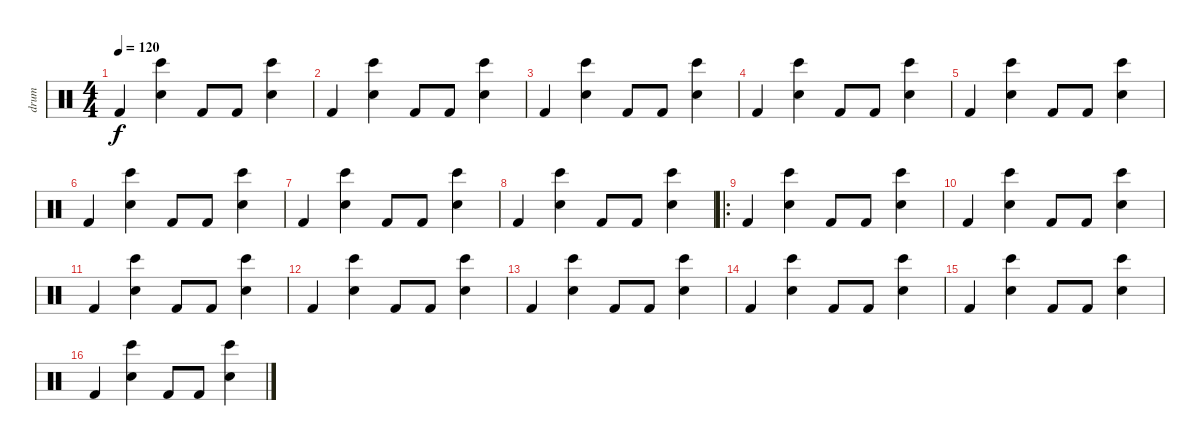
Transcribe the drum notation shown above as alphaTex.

\track ("drum " "drum ") {instrument percussion}
\staff {score}
\articulation defaults
\ts (4 4)
\tempo 120
\tempo 180
\tempo 120
\clef neutral
\ks c "Kick (hit) 2".4{dy f}
("Electric Snare (hit)" "Bongo High (hit)").4 "Kick (hit) 2".8 "Kick (hit) 2".8 ("Electric Snare (hit)" "Bongo High (hit)").4 |
"Kick (hit) 2".4 ("Electric Snare (hit)" "Bongo High (hit)").4 "Kick (hit) 2".8 "Kick (hit) 2".8 ("Electric Snare (hit)" "Bongo High (hit)").4 |
"Kick (hit) 2".4 ("Electric Snare (hit)" "Bongo High (hit)").4 "Kick (hit) 2".8 "Kick (hit) 2".8 ("Electric Snare (hit)" "Bongo High (hit)").4 |
"Kick (hit) 2".4 ("Electric Snare (hit)" "Bongo High (hit)").4 "Kick (hit) 2".8 "Kick (hit) 2".8 ("Electric Snare (hit)" "Bongo High (hit)").4 |
"Kick (hit) 2".4 ("Electric Snare (hit)" "Bongo High (hit)").4 "Kick (hit) 2".8 "Kick (hit) 2".8 ("Electric Snare (hit)" "Bongo High (hit)").4 |
"Kick (hit) 2".4 ("Electric Snare (hit)" "Bongo High (hit)").4 "Kick (hit) 2".8 "Kick (hit) 2".8 ("Electric Snare (hit)" "Bongo High (hit)").4 |
"Kick (hit) 2".4 ("Electric Snare (hit)" "Bongo High (hit)").4 "Kick (hit) 2".8 "Kick (hit) 2".8 ("Electric Snare (hit)" "Bongo High (hit)").4 |
"Kick (hit) 2".4 ("Electric Snare (hit)" "Bongo High (hit)").4 "Kick (hit) 2".8 "Kick (hit) 2".8 ("Electric Snare (hit)" "Bongo High (hit)").4 |
\ro "Kick (hit) 2".4
("Electric Snare (hit)" "Bongo High (hit)").4 "Kick (hit) 2".8 "Kick (hit) 2".8 ("Electric Snare (hit)" "Bongo High (hit)").4 |
"Kick (hit) 2".4 ("Electric Snare (hit)" "Bongo High (hit)").4 "Kick (hit) 2".8 "Kick (hit) 2".8 ("Electric Snare (hit)" "Bongo High (hit)").4 |
"Kick (hit) 2".4 ("Electric Snare (hit)" "Bongo High (hit)").4 "Kick (hit) 2".8 "Kick (hit) 2".8 ("Electric Snare (hit)" "Bongo High (hit)").4 |
"Kick (hit) 2".4 ("Electric Snare (hit)" "Bongo High (hit)").4 "Kick (hit) 2".8 "Kick (hit) 2".8 ("Electric Snare (hit)" "Bongo High (hit)").4 |
"Kick (hit) 2".4 ("Electric Snare (hit)" "Bongo High (hit)").4 "Kick (hit) 2".8 "Kick (hit) 2".8 ("Electric Snare (hit)" "Bongo High (hit)").4 |
"Kick (hit) 2".4 ("Electric Snare (hit)" "Bongo High (hit)").4 "Kick (hit) 2".8 "Kick (hit) 2".8 ("Electric Snare (hit)" "Bongo High (hit)").4 |
"Kick (hit) 2".4 ("Electric Snare (hit)" "Bongo High (hit)").4 "Kick (hit) 2".8 "Kick (hit) 2".8 ("Electric Snare (hit)" "Bongo High (hit)").4 |
"Kick (hit) 2".4 ("Electric Snare (hit)" "Bongo High (hit)").4 "Kick (hit) 2".8 "Kick (hit) 2".8 ("Electric Snare (hit)" "Bongo High (hit)").4
